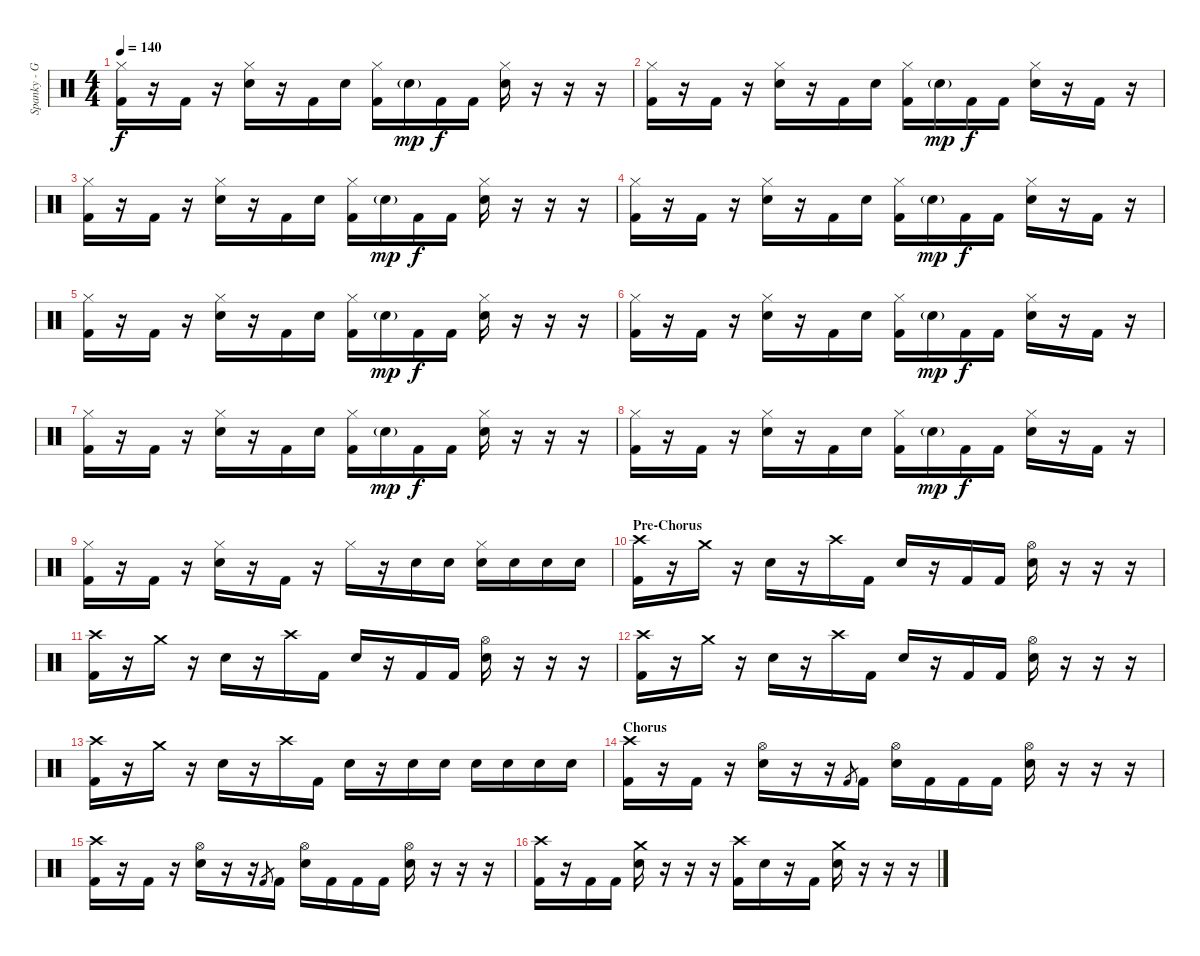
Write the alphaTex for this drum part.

\track ("Spanky - G (Ex-drummer)" "Spanky - G") {instrument percussion}
\staff {score}
\articulation defaults
\ts (4 4)
\tempo 140
\clef neutral
\ks c
("Hi-Hat (closed)" "Kick (hit) 2").16{dy f} r.16 "Kick (hit) 2".16 r.16 ("Hi-Hat (closed)" "Electric Snare (hit)").16 r.16 "Kick (hit) 2".16 "Electric Snare (hit)".16 ("Hi-Hat (closed)" "Kick (hit) 2").16 "Electric Snare (hit)"{g}.16{dy mp} "Kick (hit) 2".16{dy f} "Kick (hit) 2".16 ("Hi-Hat (closed)" "Electric Snare (hit)").16 r.16 r.16 r.16 |
("Hi-Hat (closed)" "Kick (hit) 2").16 r.16 "Kick (hit) 2".16 r.16 ("Hi-Hat (closed)" "Electric Snare (hit)").16 r.16 "Kick (hit) 2".16 "Electric Snare (hit)".16 ("Hi-Hat (closed)" "Kick (hit) 2").16 "Electric Snare (hit)"{g}.16{dy mp} "Kick (hit) 2".16{dy f} "Kick (hit) 2".16 ("Hi-Hat (closed)" "Electric Snare (hit)").16 r.16 "Kick (hit) 2".16 r.16 |
("Hi-Hat (closed)" "Kick (hit) 2").16 r.16 "Kick (hit) 2".16 r.16 ("Hi-Hat (closed)" "Electric Snare (hit)").16 r.16 "Kick (hit) 2".16 "Electric Snare (hit)".16 ("Hi-Hat (closed)" "Kick (hit) 2").16 "Electric Snare (hit)"{g}.16{dy mp} "Kick (hit) 2".16{dy f} "Kick (hit) 2".16 ("Hi-Hat (closed)" "Electric Snare (hit)").16 r.16 r.16 r.16 |
("Hi-Hat (closed)" "Kick (hit) 2").16 r.16 "Kick (hit) 2".16 r.16 ("Hi-Hat (closed)" "Electric Snare (hit)").16 r.16 "Kick (hit) 2".16 "Electric Snare (hit)".16 ("Hi-Hat (closed)" "Kick (hit) 2").16 "Electric Snare (hit)"{g}.16{dy mp} "Kick (hit) 2".16{dy f} "Kick (hit) 2".16 ("Hi-Hat (closed)" "Electric Snare (hit)").16 r.16 "Kick (hit) 2".16 r.16 |
("Hi-Hat (closed)" "Kick (hit) 2").16 r.16 "Kick (hit) 2".16 r.16 ("Hi-Hat (closed)" "Electric Snare (hit)").16 r.16 "Kick (hit) 2".16 "Electric Snare (hit)".16 ("Hi-Hat (closed)" "Kick (hit) 2").16 "Electric Snare (hit)"{g}.16{dy mp} "Kick (hit) 2".16{dy f} "Kick (hit) 2".16 ("Hi-Hat (closed)" "Electric Snare (hit)").16 r.16 r.16 r.16 |
("Hi-Hat (closed)" "Kick (hit) 2").16 r.16 "Kick (hit) 2".16 r.16 ("Hi-Hat (closed)" "Electric Snare (hit)").16 r.16 "Kick (hit) 2".16 "Electric Snare (hit)".16 ("Hi-Hat (closed)" "Kick (hit) 2").16 "Electric Snare (hit)"{g}.16{dy mp} "Kick (hit) 2".16{dy f} "Kick (hit) 2".16 ("Hi-Hat (closed)" "Electric Snare (hit)").16 r.16 "Kick (hit) 2".16 r.16 |
("Hi-Hat (closed)" "Kick (hit) 2").16 r.16 "Kick (hit) 2".16 r.16 ("Hi-Hat (closed)" "Electric Snare (hit)").16 r.16 "Kick (hit) 2".16 "Electric Snare (hit)".16 ("Hi-Hat (closed)" "Kick (hit) 2").16 "Electric Snare (hit)"{g}.16{dy mp} "Kick (hit) 2".16{dy f} "Kick (hit) 2".16 ("Hi-Hat (closed)" "Electric Snare (hit)").16 r.16 r.16 r.16 |
("Hi-Hat (closed)" "Kick (hit) 2").16 r.16 "Kick (hit) 2".16 r.16 ("Hi-Hat (closed)" "Electric Snare (hit)").16 r.16 "Kick (hit) 2".16 "Electric Snare (hit)".16 ("Hi-Hat (closed)" "Kick (hit) 2").16 "Electric Snare (hit)"{g}.16{dy mp} "Kick (hit) 2".16{dy f} "Kick (hit) 2".16 ("Hi-Hat (closed)" "Electric Snare (hit)").16 r.16 "Kick (hit) 2".16 r.16 |
("Hi-Hat (closed)" "Kick (hit) 2").16 r.16 "Kick (hit) 2".16 r.16 ("Hi-Hat (closed)" "Electric Snare (hit)").16 r.16 "Kick (hit) 2".16 r.16 "Hi-Hat (closed)".16 r.16 "Electric Snare (hit)".16 "Electric Snare (hit)".16 ("Hi-Hat (closed)" "Electric Snare (hit)").16 "Electric Snare (hit)".16 "Electric Snare (hit)".16 "Electric Snare (hit)".16 |
\section ("" "Pre-Chorus")
("Crash high (hit)" "Kick (hit) 2").16 r.16 "Crash medium (hit)".16 r.16 "Electric Snare (hit)".16 r.16 "Crash high (hit)".16 "Kick (hit) 2".16 "Electric Snare (hit)".16 r.16 "Kick (hit) 2".16 "Kick (hit) 2".16 ("Hi-Hat (open)" "Electric Snare (hit)").16 r.16 r.16 r.16 |
("Crash high (hit)" "Kick (hit) 2").16 r.16 "Crash medium (hit)".16 r.16 "Electric Snare (hit)".16 r.16 "Crash high (hit)".16 "Kick (hit) 2".16 "Electric Snare (hit)".16 r.16 "Kick (hit) 2".16 "Kick (hit) 2".16 ("Hi-Hat (open)" "Electric Snare (hit)").16 r.16 r.16 r.16 |
("Crash high (hit)" "Kick (hit) 2").16 r.16 "Crash medium (hit)".16 r.16 "Electric Snare (hit)".16 r.16 "Crash high (hit)".16 "Kick (hit) 2".16 "Electric Snare (hit)".16 r.16 "Kick (hit) 2".16 "Kick (hit) 2".16 ("Hi-Hat (open)" "Electric Snare (hit)").16 r.16 r.16 r.16 |
("Crash high (hit)" "Kick (hit) 2").16 r.16 "Crash medium (hit)".16 r.16 "Electric Snare (hit)".16 r.16 "Crash high (hit)".16 "Kick (hit) 2".16 "Electric Snare (hit)".16 r.16 "Electric Snare (hit)".16 "Electric Snare (hit)".16 "Electric Snare (hit)".16 "Electric Snare (hit)".16 "Electric Snare (hit)".16 "Electric Snare (hit)".16 |
\section ("" "Chorus")
("Crash high (hit)" "Kick (hit) 2").16 r.16 "Kick (hit) 2".16 r.16 ("Hi-Hat (open)" "Electric Snare (hit)").16 r.16 r.16 "Kick (hit) 2".8{gr} "Kick (hit) 2".16 ("Hi-Hat (open)" "Electric Snare (hit)").16 "Kick (hit) 2".16 "Kick (hit) 2".16 "Kick (hit) 2".16 ("Hi-Hat (open)" "Electric Snare (hit)").16 r.16 r.16 r.16 |
("Crash high (hit)" "Kick (hit) 2").16 r.16 "Kick (hit) 2".16 r.16 ("Hi-Hat (open)" "Electric Snare (hit)").16 r.16 r.16 "Kick (hit) 2".8{gr} "Kick (hit) 2".16 ("Hi-Hat (open)" "Electric Snare (hit)").16 "Kick (hit) 2".16 "Kick (hit) 2".16 "Kick (hit) 2".16 ("Hi-Hat (open)" "Electric Snare (hit)").16 r.16 r.16 r.16 |
("Crash high (hit)" "Kick (hit) 2").16 r.16 "Kick (hit) 2".16 "Kick (hit) 2".16 ("Crash medium (hit)" "Electric Snare (hit)").16 r.16 r.16 r.16 ("Crash high (hit)" "Kick (hit) 2").16 "Electric Snare (hit)".16 r.16 "Kick (hit) 2".16 ("Crash medium (hit)" "Electric Snare (hit)").16 r.16 r.16 r.16
